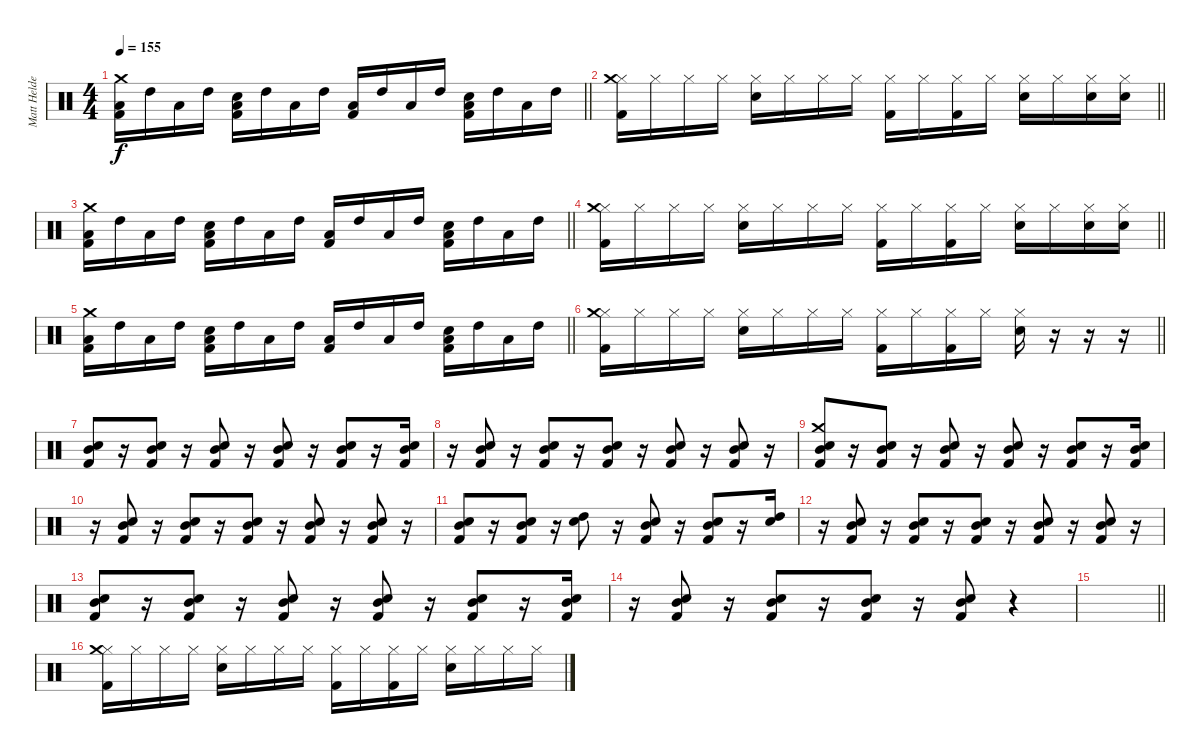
\track ("Matt Helders" "Matt Helde") {instrument percussion}
\staff {score}
\articulation defaults
\ts (4 4)
\tempo 155
\clef neutral
\barLineRight lightlight
\ks c
("Low Tom (hit)" "Kick (hit) 2" "Crash medium (hit)").16{dy f} "High Tom (hit)".16 "Low Tom (hit)".16 "High Tom (hit)".16 ("Low Tom (hit)" "Kick (hit) 2" "Snare (hit) 2").16 "High Tom (hit)".16 "Low Tom (hit)".16 "High Tom (hit)".16 ("Low Tom (hit)" "Kick (hit) 2").16 "High Tom (hit)".16 "Low Tom (hit)".16 "High Tom (hit)".16 ("Low Tom (hit)" "Kick (hit) 2" "Snare (hit) 2").16 "High Tom (hit)".16 "Low Tom (hit)".16 "High Tom (hit)".16 |
\barLineRight lightlight
("Hi-Hat (closed)" "Kick (hit) 2" "Crash medium (hit)").16 "Hi-Hat (closed)".16 "Hi-Hat (closed)".16 "Hi-Hat (closed)".16 ("Hi-Hat (closed)" "Snare (hit) 2").16 "Hi-Hat (closed)".16 "Hi-Hat (closed)".16 "Hi-Hat (closed)".16 ("Hi-Hat (closed)" "Kick (hit) 2").16 "Hi-Hat (closed)".16 ("Hi-Hat (closed)" "Kick (hit) 2").16 "Hi-Hat (closed)".16 ("Hi-Hat (closed)" "Snare (hit) 2").16 "Hi-Hat (closed)".16 ("Hi-Hat (closed)" "Snare (hit) 2").16 ("Hi-Hat (closed)" "Snare (hit) 2").16 |
\barLineRight lightlight
("Low Tom (hit)" "Kick (hit) 2" "Crash medium (hit)").16 "High Tom (hit)".16 "Low Tom (hit)".16 "High Tom (hit)".16 ("Low Tom (hit)" "Kick (hit) 2" "Snare (hit) 2").16 "High Tom (hit)".16 "Low Tom (hit)".16 "High Tom (hit)".16 ("Low Tom (hit)" "Kick (hit) 2").16 "High Tom (hit)".16 "Low Tom (hit)".16 "High Tom (hit)".16 ("Low Tom (hit)" "Kick (hit) 2" "Snare (hit) 2").16 "High Tom (hit)".16 "Low Tom (hit)".16 "High Tom (hit)".16 |
\barLineRight lightlight
("Hi-Hat (closed)" "Kick (hit) 2" "Crash medium (hit)").16 "Hi-Hat (closed)".16 "Hi-Hat (closed)".16 "Hi-Hat (closed)".16 ("Hi-Hat (closed)" "Snare (hit) 2").16 "Hi-Hat (closed)".16 "Hi-Hat (closed)".16 "Hi-Hat (closed)".16 ("Hi-Hat (closed)" "Kick (hit) 2").16 "Hi-Hat (closed)".16 ("Hi-Hat (closed)" "Kick (hit) 2").16 "Hi-Hat (closed)".16 ("Hi-Hat (closed)" "Snare (hit) 2").16 "Hi-Hat (closed)".16 ("Hi-Hat (closed)" "Snare (hit) 2").16 ("Hi-Hat (closed)" "Snare (hit) 2").16 |
\barLineRight lightlight
("Low Tom (hit)" "Kick (hit) 2" "Crash medium (hit)").16 "High Tom (hit)".16 "Low Tom (hit)".16 "High Tom (hit)".16 ("Low Tom (hit)" "Kick (hit) 2" "Snare (hit) 2").16 "High Tom (hit)".16 "Low Tom (hit)".16 "High Tom (hit)".16 ("Low Tom (hit)" "Kick (hit) 2").16 "High Tom (hit)".16 "Low Tom (hit)".16 "High Tom (hit)".16 ("Low Tom (hit)" "Kick (hit) 2" "Snare (hit) 2").16 "High Tom (hit)".16 "Low Tom (hit)".16 "High Tom (hit)".16 |
\barLineRight lightlight
("Hi-Hat (closed)" "Kick (hit) 2" "Crash medium (hit)").16 "Hi-Hat (closed)".16 "Hi-Hat (closed)".16 "Hi-Hat (closed)".16 ("Hi-Hat (closed)" "Snare (hit) 2").16 "Hi-Hat (closed)".16 "Hi-Hat (closed)".16 "Hi-Hat (closed)".16 ("Hi-Hat (closed)" "Kick (hit) 2").16 "Hi-Hat (closed)".16 ("Hi-Hat (closed)" "Kick (hit) 2").16 "Hi-Hat (closed)".16 ("Hi-Hat (closed)" "Snare (hit) 2").16 r.16 r.16 r.16 |
("Mid Tom (hit)" "Snare (hit) 2" "Kick (hit) 2").8 r.16 ("Mid Tom (hit)" "Snare (hit) 2" "Kick (hit) 2").8 r.16 ("Mid Tom (hit)" "Snare (hit) 2" "Kick (hit) 2").8 r.16 ("Mid Tom (hit)" "Snare (hit) 2" "Kick (hit) 2").8 r.16 ("Mid Tom (hit)" "Snare (hit) 2" "Kick (hit) 2").8 r.16 ("Mid Tom (hit)" "Snare (hit) 2" "Kick (hit) 2").16 |
r.16 ("Snare (hit) 2" "Mid Tom (hit)" "Kick (hit) 2").8 r.16 ("Snare (hit) 2" "Mid Tom (hit)" "Kick (hit) 2").8 r.16 ("Snare (hit) 2" "Mid Tom (hit)" "Kick (hit) 2").8 r.16 ("Snare (hit) 2" "Mid Tom (hit)" "Kick (hit) 2").8 r.16 ("Snare (hit) 2" "Mid Tom (hit)" "Kick (hit) 2").8 r.16 |
("Mid Tom (hit)" "Snare (hit) 2" "Kick (hit) 2" "Crash medium (hit)").8 r.16 ("Mid Tom (hit)" "Snare (hit) 2" "Kick (hit) 2").8 r.16 ("Mid Tom (hit)" "Snare (hit) 2" "Kick (hit) 2").8 r.16 ("Mid Tom (hit)" "Snare (hit) 2" "Kick (hit) 2").8 r.16 ("Mid Tom (hit)" "Snare (hit) 2" "Kick (hit) 2").8 r.16 ("Mid Tom (hit)" "Snare (hit) 2" "Kick (hit) 2").16 |
r.16 ("Snare (hit) 2" "Mid Tom (hit)" "Kick (hit) 2").8 r.16 ("Snare (hit) 2" "Mid Tom (hit)" "Kick (hit) 2").8 r.16 ("Snare (hit) 2" "Mid Tom (hit)" "Kick (hit) 2").8 r.16 ("Snare (hit) 2" "Mid Tom (hit)" "Kick (hit) 2").8 r.16 ("Snare (hit) 2" "Mid Tom (hit)" "Kick (hit) 2").8 r.16 |
("Mid Tom (hit)" "Snare (hit) 2" "Kick (hit) 2").8 r.16 ("Mid Tom (hit)" "Snare (hit) 2" "Kick (hit) 2").8 r.16 ("Snare (hit) 2" "High Tom (hit)").8 r.16 ("Mid Tom (hit)" "Snare (hit) 2" "Kick (hit) 2").8 r.16 ("Kick (hit) 2" "Mid Tom (hit)" "Snare (hit) 2").8 r.16 ("Snare (hit) 2" "High Tom (hit)").16 |
r.16 ("Snare (hit) 2" "Mid Tom (hit)" "Kick (hit) 2").8 r.16 ("Snare (hit) 2" "Mid Tom (hit)" "Kick (hit) 2").8 r.16 ("Snare (hit) 2" "Mid Tom (hit)" "Kick (hit) 2").8 r.16 ("Snare (hit) 2" "Mid Tom (hit)" "Kick (hit) 2").8 r.16 ("Snare (hit) 2" "Mid Tom (hit)" "Kick (hit) 2").8 r.16 |
("Mid Tom (hit)" "Snare (hit) 2" "Kick (hit) 2").8 r.16 ("Mid Tom (hit)" "Snare (hit) 2" "Kick (hit) 2").8 r.16 ("Mid Tom (hit)" "Snare (hit) 2" "Kick (hit) 2").8 r.16 ("Mid Tom (hit)" "Snare (hit) 2" "Kick (hit) 2").8 r.16 ("Mid Tom (hit)" "Snare (hit) 2" "Kick (hit) 2").8 r.16 ("Mid Tom (hit)" "Snare (hit) 2" "Kick (hit) 2").16 |
r.16 ("Snare (hit) 2" "Mid Tom (hit)" "Kick (hit) 2").8 r.16 ("Snare (hit) 2" "Mid Tom (hit)" "Kick (hit) 2").8 r.16 ("Snare (hit) 2" "Mid Tom (hit)" "Kick (hit) 2").8 r.16 ("Snare (hit) 2" "Mid Tom (hit)" "Kick (hit) 2").8 r.4 |
\barLineRight lightlight
|
("Hi-Hat (closed)" "Kick (hit) 2" "Crash medium (hit)").16 "Hi-Hat (closed)".16 "Hi-Hat (closed)".16 "Hi-Hat (closed)".16 ("Hi-Hat (closed)" "Snare (hit) 2").16 "Hi-Hat (closed)".16 "Hi-Hat (closed)".16 "Hi-Hat (closed)".16 ("Hi-Hat (closed)" "Kick (hit) 2").16 "Hi-Hat (closed)".16 ("Hi-Hat (closed)" "Kick (hit) 2").16 "Hi-Hat (closed)".16 ("Hi-Hat (closed)" "Snare (hit) 2").16 "Hi-Hat (closed)".16 "Hi-Hat (closed)".16 "Hi-Hat (closed)".16
